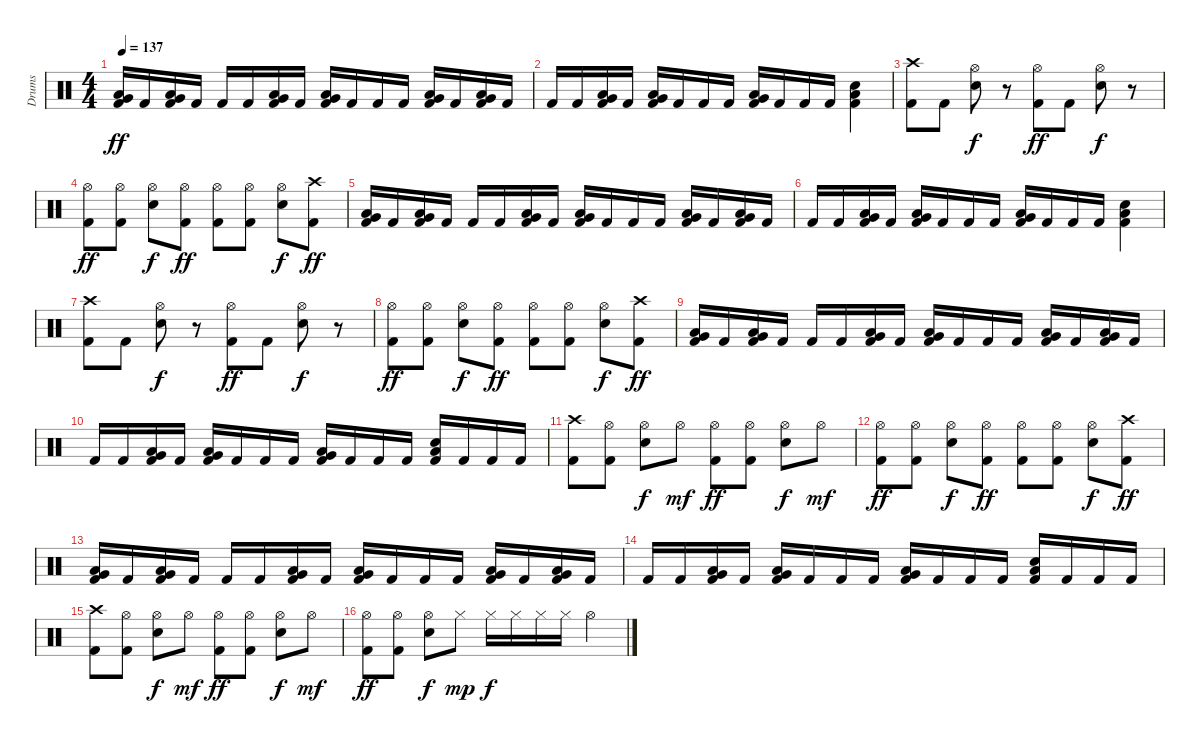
\track ("Drums" "Drums") {instrument percussion}
\staff {score}
\articulation defaults
\ts (4 4)
\tempo 137
\clef neutral
\ks c
("Very Low Tom (hit)" "Low Floor Tom (hit)" "Kick (hit) 2").16{dy ff} "Kick (hit) 2".16 ("Very Low Tom (hit)" "Low Floor Tom (hit)" "Kick (hit) 2").16 "Kick (hit) 2".16 "Kick (hit) 2".16 "Kick (hit) 2".16 ("Very Low Tom (hit)" "Low Floor Tom (hit)" "Kick (hit) 2").16 "Kick (hit) 2".16 ("Very Low Tom (hit)" "Low Floor Tom (hit)" "Kick (hit) 2").16 "Kick (hit) 2".16 "Kick (hit) 2".16 "Kick (hit) 2".16 ("Very Low Tom (hit)" "Low Floor Tom (hit)" "Kick (hit) 2").16 "Kick (hit) 2".16 ("Very Low Tom (hit)" "Low Floor Tom (hit)" "Kick (hit) 2").16 "Kick (hit) 2".16 |
"Kick (hit) 2".16 "Kick (hit) 2".16 ("Very Low Tom (hit)" "Low Floor Tom (hit)" "Kick (hit) 2").16 "Kick (hit) 2".16 ("Very Low Tom (hit)" "Low Floor Tom (hit)" "Kick (hit) 2").16 "Kick (hit) 2".16 "Kick (hit) 2".16 "Kick (hit) 2".16 ("Very Low Tom (hit)" "Low Floor Tom (hit)" "Kick (hit) 2").16 "Kick (hit) 2".16 "Kick (hit) 2".16 "Kick (hit) 2".16 ("Electric Snare (hit)" "Low Floor Tom (hit)" "Kick (hit) 2").4 |
("Crash high (hit)" "Kick (hit) 2").8 "Kick (hit) 2".8 ("Hi-Hat (open)" "Electric Snare (hit)").8{dy f} r.8 ("Hi-Hat (open)" "Kick (hit) 2").8{dy ff} "Kick (hit) 2".8 ("Hi-Hat (open)" "Electric Snare (hit)").8{dy f} r.8 |
("Hi-Hat (open)" "Kick (hit) 2").8{dy ff} ("Hi-Hat (open)" "Kick (hit) 2").8 ("Hi-Hat (open)" "Electric Snare (hit)").8{dy f} ("Hi-Hat (open)" "Kick (hit) 2").8{dy ff} ("Hi-Hat (open)" "Kick (hit) 2").8 ("Hi-Hat (open)" "Kick (hit) 2").8 ("Hi-Hat (open)" "Electric Snare (hit)").8{dy f} ("Crash high (hit)" "Kick (hit) 2").8{dy ff} |
("Very Low Tom (hit)" "Low Floor Tom (hit)" "Kick (hit) 2").16 "Kick (hit) 2".16 ("Very Low Tom (hit)" "Low Floor Tom (hit)" "Kick (hit) 2").16 "Kick (hit) 2".16 "Kick (hit) 2".16 "Kick (hit) 2".16 ("Very Low Tom (hit)" "Low Floor Tom (hit)" "Kick (hit) 2").16 "Kick (hit) 2".16 ("Very Low Tom (hit)" "Low Floor Tom (hit)" "Kick (hit) 2").16 "Kick (hit) 2".16 "Kick (hit) 2".16 "Kick (hit) 2".16 ("Very Low Tom (hit)" "Low Floor Tom (hit)" "Kick (hit) 2").16 "Kick (hit) 2".16 ("Very Low Tom (hit)" "Low Floor Tom (hit)" "Kick (hit) 2").16 "Kick (hit) 2".16 |
"Kick (hit) 2".16 "Kick (hit) 2".16 ("Very Low Tom (hit)" "Low Floor Tom (hit)" "Kick (hit) 2").16 "Kick (hit) 2".16 ("Very Low Tom (hit)" "Low Floor Tom (hit)" "Kick (hit) 2").16 "Kick (hit) 2".16 "Kick (hit) 2".16 "Kick (hit) 2".16 ("Very Low Tom (hit)" "Low Floor Tom (hit)" "Kick (hit) 2").16 "Kick (hit) 2".16 "Kick (hit) 2".16 "Kick (hit) 2".16 ("Electric Snare (hit)" "Low Floor Tom (hit)" "Kick (hit) 2").4 |
("Crash high (hit)" "Kick (hit) 2").8 "Kick (hit) 2".8 ("Hi-Hat (open)" "Electric Snare (hit)").8{dy f} r.8 ("Hi-Hat (open)" "Kick (hit) 2").8{dy ff} "Kick (hit) 2".8 ("Hi-Hat (open)" "Electric Snare (hit)").8{dy f} r.8 |
("Hi-Hat (open)" "Kick (hit) 2").8{dy ff} ("Hi-Hat (open)" "Kick (hit) 2").8 ("Hi-Hat (open)" "Electric Snare (hit)").8{dy f} ("Hi-Hat (open)" "Kick (hit) 2").8{dy ff} ("Hi-Hat (open)" "Kick (hit) 2").8 ("Hi-Hat (open)" "Kick (hit) 2").8 ("Hi-Hat (open)" "Electric Snare (hit)").8{dy f} ("Crash high (hit)" "Kick (hit) 2").8{dy ff} |
("Very Low Tom (hit)" "Low Floor Tom (hit)" "Kick (hit) 2").16 "Kick (hit) 2".16 ("Very Low Tom (hit)" "Low Floor Tom (hit)" "Kick (hit) 2").16 "Kick (hit) 2".16 "Kick (hit) 2".16 "Kick (hit) 2".16 ("Very Low Tom (hit)" "Low Floor Tom (hit)" "Kick (hit) 2").16 "Kick (hit) 2".16 ("Very Low Tom (hit)" "Low Floor Tom (hit)" "Kick (hit) 2").16 "Kick (hit) 2".16 "Kick (hit) 2".16 "Kick (hit) 2".16 ("Very Low Tom (hit)" "Low Floor Tom (hit)" "Kick (hit) 2").16 "Kick (hit) 2".16 ("Very Low Tom (hit)" "Low Floor Tom (hit)" "Kick (hit) 2").16 "Kick (hit) 2".16 |
"Kick (hit) 2".16 "Kick (hit) 2".16 ("Very Low Tom (hit)" "Low Floor Tom (hit)" "Kick (hit) 2").16 "Kick (hit) 2".16 ("Very Low Tom (hit)" "Low Floor Tom (hit)" "Kick (hit) 2").16 "Kick (hit) 2".16 "Kick (hit) 2".16 "Kick (hit) 2".16 ("Very Low Tom (hit)" "Low Floor Tom (hit)" "Kick (hit) 2").16 "Kick (hit) 2".16 "Kick (hit) 2".16 "Kick (hit) 2".16 ("Electric Snare (hit)" "Low Floor Tom (hit)" "Kick (hit) 2").16 "Kick (hit) 2".16 "Kick (hit) 2".16 "Kick (hit) 2".16 |
("Crash high (hit)" "Kick (hit) 2").8 ("Hi-Hat (open)" "Kick (hit) 2").8 ("Hi-Hat (open)" "Electric Snare (hit)").8{dy f} "Hi-Hat (open)".8{dy mf} ("Hi-Hat (open)" "Kick (hit) 2").8{dy ff} ("Hi-Hat (open)" "Kick (hit) 2").8 ("Hi-Hat (open)" "Electric Snare (hit)").8{dy f} "Hi-Hat (open)".8{dy mf} |
("Hi-Hat (open)" "Kick (hit) 2").8{dy ff} ("Hi-Hat (open)" "Kick (hit) 2").8 ("Hi-Hat (open)" "Electric Snare (hit)").8{dy f} ("Hi-Hat (open)" "Kick (hit) 2").8{dy ff} ("Hi-Hat (open)" "Kick (hit) 2").8 ("Hi-Hat (open)" "Kick (hit) 2").8 ("Hi-Hat (open)" "Electric Snare (hit)").8{dy f} ("Crash high (hit)" "Kick (hit) 2").8{dy ff} |
("Very Low Tom (hit)" "Low Floor Tom (hit)" "Kick (hit) 2").16 "Kick (hit) 2".16 ("Very Low Tom (hit)" "Low Floor Tom (hit)" "Kick (hit) 2").16 "Kick (hit) 2".16 "Kick (hit) 2".16 "Kick (hit) 2".16 ("Very Low Tom (hit)" "Low Floor Tom (hit)" "Kick (hit) 2").16 "Kick (hit) 2".16 ("Very Low Tom (hit)" "Low Floor Tom (hit)" "Kick (hit) 2").16 "Kick (hit) 2".16 "Kick (hit) 2".16 "Kick (hit) 2".16 ("Very Low Tom (hit)" "Low Floor Tom (hit)" "Kick (hit) 2").16 "Kick (hit) 2".16 ("Very Low Tom (hit)" "Low Floor Tom (hit)" "Kick (hit) 2").16 "Kick (hit) 2".16 |
"Kick (hit) 2".16 "Kick (hit) 2".16 ("Very Low Tom (hit)" "Low Floor Tom (hit)" "Kick (hit) 2").16 "Kick (hit) 2".16 ("Very Low Tom (hit)" "Low Floor Tom (hit)" "Kick (hit) 2").16 "Kick (hit) 2".16 "Kick (hit) 2".16 "Kick (hit) 2".16 ("Very Low Tom (hit)" "Low Floor Tom (hit)" "Kick (hit) 2").16 "Kick (hit) 2".16 "Kick (hit) 2".16 "Kick (hit) 2".16 ("Electric Snare (hit)" "Low Floor Tom (hit)" "Kick (hit) 2").16 "Kick (hit) 2".16 "Kick (hit) 2".16 "Kick (hit) 2".16 |
("Crash high (hit)" "Kick (hit) 2").8 ("Hi-Hat (open)" "Kick (hit) 2").8 ("Hi-Hat (open)" "Electric Snare (hit)").8{dy f} "Hi-Hat (open)".8{dy mf} ("Hi-Hat (open)" "Kick (hit) 2").8{dy ff} ("Hi-Hat (open)" "Kick (hit) 2").8 ("Hi-Hat (open)" "Electric Snare (hit)").8{dy f} "Hi-Hat (open)".8{dy mf} |
("Hi-Hat (open)" "Kick (hit) 2").8{dy ff} ("Hi-Hat (open)" "Kick (hit) 2").8 ("Hi-Hat (open)" "Electric Snare (hit)").8{dy f} "Hi-Hat (closed)".8{dy mp} "Hi-Hat (closed)".16{dy f} "Hi-Hat (closed)".16 "Hi-Hat (closed)".16 "Hi-Hat (closed)".16 "Hi-Hat (open)".4
